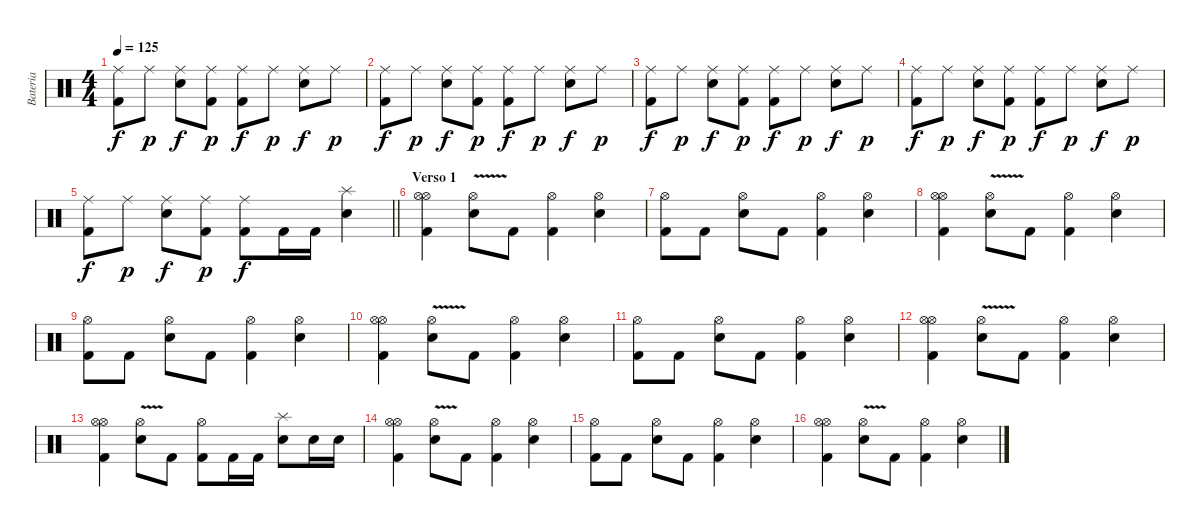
\track ("Bateria" "Bateria") {instrument percussion}
\staff {score}
\articulation defaults
\ts (4 4)
\tempo 125
\clef neutral
\ks c
("Ride (middle)" "Kick (hit) 2").8{dy f} "Ride (middle)".8{dy p} ("Ride (middle)" "Electric Snare (hit)").8{dy f} ("Ride (middle)" "Kick (hit) 2").8{dy p} ("Ride (middle)" "Kick (hit) 2").8{dy f} "Ride (middle)".8{dy p} ("Ride (middle)" "Electric Snare (hit)").8{dy f} "Ride (middle)".8{dy p} |
("Ride (middle)" "Kick (hit) 2").8{dy f} "Ride (middle)".8{dy p} ("Ride (middle)" "Electric Snare (hit)").8{dy f} ("Ride (middle)" "Kick (hit) 2").8{dy p} ("Ride (middle)" "Kick (hit) 2").8{dy f} "Ride (middle)".8{dy p} ("Ride (middle)" "Electric Snare (hit)").8{dy f} "Ride (middle)".8{dy p} |
("Ride (middle)" "Kick (hit) 2").8{dy f} "Ride (middle)".8{dy p} ("Ride (middle)" "Electric Snare (hit)").8{dy f} ("Ride (middle)" "Kick (hit) 2").8{dy p} ("Ride (middle)" "Kick (hit) 2").8{dy f} "Ride (middle)".8{dy p} ("Ride (middle)" "Electric Snare (hit)").8{dy f} "Ride (middle)".8{dy p} |
("Ride (middle)" "Kick (hit) 2").8{dy f} "Ride (middle)".8{dy p} ("Ride (middle)" "Electric Snare (hit)").8{dy f} ("Ride (middle)" "Kick (hit) 2").8{dy p} ("Ride (middle)" "Kick (hit) 2").8{dy f} "Ride (middle)".8{dy p} ("Ride (middle)" "Electric Snare (hit)").8{dy f} "Ride (middle)".8{dy p} |
\barLineRight lightlight
("Ride (middle)" "Kick (hit) 2").8{dy f} "Ride (middle)".8{dy p} ("Ride (middle)" "Electric Snare (hit)").8{dy f} ("Ride (middle)" "Kick (hit) 2").8{dy p} ("Ride (middle)" "Kick (hit) 2").8{dy f} "Kick (hit) 2".16 "Kick (hit) 2".16 ("Splash (hit)" "Electric Snare (hit)").4 |
\section ("" "Verso 1")
("Hi-Hat (open)" "Hi-Hat (open)" "Kick (hit) 2").4 ("Hi-Hat (open)"{v} "Electric Snare (hit)").8 "Kick (hit) 2".8 ("Hi-Hat (open)" "Kick (hit) 2").4 ("Electric Snare (hit)" "Hi-Hat (open)").4 |
("Hi-Hat (open)" "Kick (hit) 2").8 "Kick (hit) 2".8 ("Hi-Hat (open)" "Electric Snare (hit)").8 "Kick (hit) 2".8 ("Hi-Hat (open)" "Kick (hit) 2").4 ("Electric Snare (hit)" "Hi-Hat (open)").4 |
("Hi-Hat (open)" "Hi-Hat (open)" "Kick (hit) 2").4 ("Hi-Hat (open)"{v} "Electric Snare (hit)").8 "Kick (hit) 2".8 ("Hi-Hat (open)" "Kick (hit) 2").4 ("Electric Snare (hit)" "Hi-Hat (open)").4 |
("Hi-Hat (open)" "Kick (hit) 2").8 "Kick (hit) 2".8 ("Hi-Hat (open)" "Electric Snare (hit)").8 "Kick (hit) 2".8 ("Hi-Hat (open)" "Kick (hit) 2").4 ("Electric Snare (hit)" "Hi-Hat (open)").4 |
("Hi-Hat (open)" "Hi-Hat (open)" "Kick (hit) 2").4 ("Hi-Hat (open)"{v} "Electric Snare (hit)").8 "Kick (hit) 2".8 ("Hi-Hat (open)" "Kick (hit) 2").4 ("Electric Snare (hit)" "Hi-Hat (open)").4 |
("Hi-Hat (open)" "Kick (hit) 2").8 "Kick (hit) 2".8 ("Hi-Hat (open)" "Electric Snare (hit)").8 "Kick (hit) 2".8 ("Hi-Hat (open)" "Kick (hit) 2").4 ("Electric Snare (hit)" "Hi-Hat (open)").4 |
("Hi-Hat (open)" "Hi-Hat (open)" "Kick (hit) 2").4 ("Hi-Hat (open)"{v} "Electric Snare (hit)").8 "Kick (hit) 2".8 ("Hi-Hat (open)" "Kick (hit) 2").4 ("Electric Snare (hit)" "Hi-Hat (open)").4 |
("Hi-Hat (open)" "Hi-Hat (open)" "Kick (hit) 2").4 ("Hi-Hat (open)"{v} "Electric Snare (hit)").8 "Kick (hit) 2".8 ("Hi-Hat (open)" "Kick (hit) 2").8 "Kick (hit) 2".16 "Kick (hit) 2".16 ("Electric Snare (hit)" "Splash (hit)").8 "Electric Snare (hit)".16 "Electric Snare (hit)".16 |
("Hi-Hat (open)" "Hi-Hat (open)" "Kick (hit) 2").4 ("Hi-Hat (open)"{v} "Electric Snare (hit)").8 "Kick (hit) 2".8 ("Hi-Hat (open)" "Kick (hit) 2").4 ("Electric Snare (hit)" "Hi-Hat (open)").4 |
("Hi-Hat (open)" "Kick (hit) 2").8 "Kick (hit) 2".8 ("Hi-Hat (open)" "Electric Snare (hit)").8 "Kick (hit) 2".8 ("Hi-Hat (open)" "Kick (hit) 2").4 ("Electric Snare (hit)" "Hi-Hat (open)").4 |
("Hi-Hat (open)" "Hi-Hat (open)" "Kick (hit) 2").4 ("Hi-Hat (open)"{v} "Electric Snare (hit)").8 "Kick (hit) 2".8 ("Hi-Hat (open)" "Kick (hit) 2").4 ("Electric Snare (hit)" "Hi-Hat (open)").4
